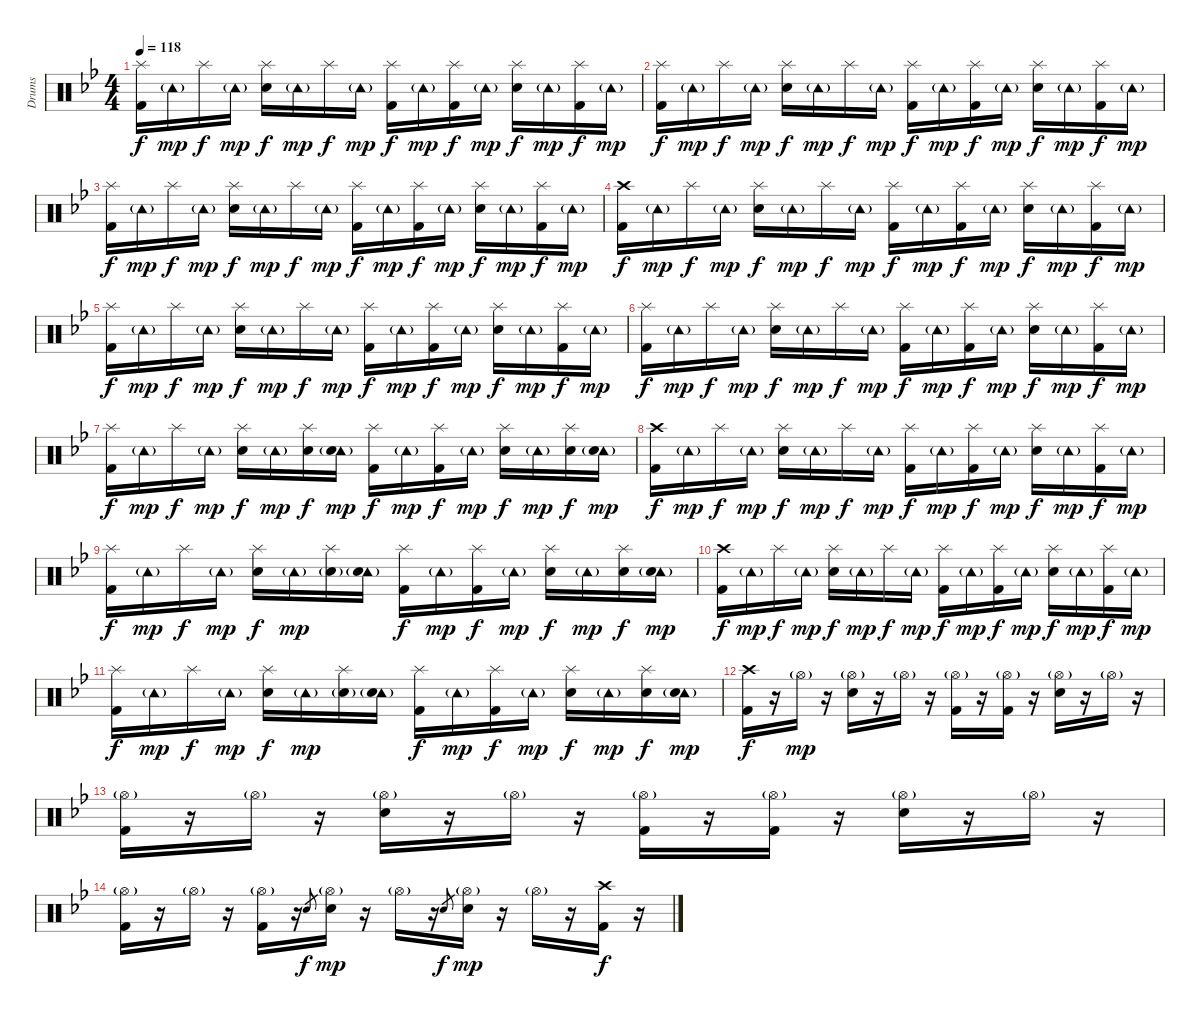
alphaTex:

\track ("Drums" "Drums") {instrument percussion}
\staff {score}
\articulation defaults
\ts (4 4)
\tempo 118
\clef neutral
\ks bb
("Splash (hit)" "Kick (hit) 2").16{dy f} "Tambourine (hit)"{g}.16{dy mp} "Splash (hit)".16{dy f} "Tambourine (hit)"{g}.16{dy mp} ("Splash (hit)" "Electric Snare (hit)").16{dy f} "Tambourine (hit)"{g}.16{dy mp} "Splash (hit)".16{dy f} "Tambourine (hit)"{g}.16{dy mp} ("Splash (hit)" "Kick (hit) 2").16{dy f} "Tambourine (hit)"{g}.16{dy mp} ("Splash (hit)" "Kick (hit) 2").16{dy f} "Tambourine (hit)"{g}.16{dy mp} ("Splash (hit)" "Electric Snare (hit)").16{dy f} "Tambourine (hit)"{g}.16{dy mp} ("Splash (hit)" "Kick (hit) 2").16{dy f} "Tambourine (hit)"{g}.16{dy mp} |
("Splash (hit)" "Kick (hit) 2").16{dy f} "Tambourine (hit)"{g}.16{dy mp} "Splash (hit)".16{dy f} "Tambourine (hit)"{g}.16{dy mp} ("Splash (hit)" "Electric Snare (hit)").16{dy f} "Tambourine (hit)"{g}.16{dy mp} "Splash (hit)".16{dy f} "Tambourine (hit)"{g}.16{dy mp} ("Splash (hit)" "Kick (hit) 2").16{dy f} "Tambourine (hit)"{g}.16{dy mp} ("Splash (hit)" "Kick (hit) 2").16{dy f} "Tambourine (hit)"{g}.16{dy mp} ("Splash (hit)" "Electric Snare (hit)").16{dy f} "Tambourine (hit)"{g}.16{dy mp} ("Splash (hit)" "Kick (hit) 2").16{dy f} "Tambourine (hit)"{g}.16{dy mp} |
("Splash (hit)" "Kick (hit) 2").16{dy f} "Tambourine (hit)"{g}.16{dy mp} "Splash (hit)".16{dy f} "Tambourine (hit)"{g}.16{dy mp} ("Splash (hit)" "Electric Snare (hit)").16{dy f} "Tambourine (hit)"{g}.16{dy mp} "Splash (hit)".16{dy f} "Tambourine (hit)"{g}.16{dy mp} ("Splash (hit)" "Kick (hit) 2").16{dy f} "Tambourine (hit)"{g}.16{dy mp} ("Splash (hit)" "Kick (hit) 2").16{dy f} "Tambourine (hit)"{g}.16{dy mp} ("Splash (hit)" "Electric Snare (hit)").16{dy f} "Tambourine (hit)"{g}.16{dy mp} ("Splash (hit)" "Kick (hit) 2").16{dy f} "Tambourine (hit)"{g}.16{dy mp} |
("Crash high (hit)" "Kick (hit) 2").16{dy f} "Tambourine (hit)"{g}.16{dy mp} "Splash (hit)".16{dy f} "Tambourine (hit)"{g}.16{dy mp} ("Splash (hit)" "Electric Snare (hit)").16{dy f} "Tambourine (hit)"{g}.16{dy mp} "Splash (hit)".16{dy f} "Tambourine (hit)"{g}.16{dy mp} ("Splash (hit)" "Kick (hit) 2").16{dy f} "Tambourine (hit)"{g}.16{dy mp} ("Splash (hit)" "Kick (hit) 2").16{dy f} "Tambourine (hit)"{g}.16{dy mp} ("Splash (hit)" "Electric Snare (hit)").16{dy f} "Tambourine (hit)"{g}.16{dy mp} ("Splash (hit)" "Kick (hit) 2").16{dy f} "Tambourine (hit)"{g}.16{dy mp} |
("Splash (hit)" "Kick (hit) 2").16{dy f} "Tambourine (hit)"{g}.16{dy mp} "Splash (hit)".16{dy f} "Tambourine (hit)"{g}.16{dy mp} ("Splash (hit)" "Electric Snare (hit)").16{dy f} "Tambourine (hit)"{g}.16{dy mp} "Splash (hit)".16{dy f} "Tambourine (hit)"{g}.16{dy mp} ("Splash (hit)" "Kick (hit) 2").16{dy f} "Tambourine (hit)"{g}.16{dy mp} ("Splash (hit)" "Kick (hit) 2").16{dy f} "Tambourine (hit)"{g}.16{dy mp} ("Splash (hit)" "Electric Snare (hit)").16{dy f} "Tambourine (hit)"{g}.16{dy mp} ("Splash (hit)" "Kick (hit) 2").16{dy f} "Tambourine (hit)"{g}.16{dy mp} |
("Splash (hit)" "Kick (hit) 2").16{dy f} "Tambourine (hit)"{g}.16{dy mp} "Splash (hit)".16{dy f} "Tambourine (hit)"{g}.16{dy mp} ("Splash (hit)" "Electric Snare (hit)").16{dy f} "Tambourine (hit)"{g}.16{dy mp} "Splash (hit)".16{dy f} "Tambourine (hit)"{g}.16{dy mp} ("Splash (hit)" "Kick (hit) 2").16{dy f} "Tambourine (hit)"{g}.16{dy mp} ("Splash (hit)" "Kick (hit) 2").16{dy f} "Tambourine (hit)"{g}.16{dy mp} ("Splash (hit)" "Electric Snare (hit)").16{dy f} "Tambourine (hit)"{g}.16{dy mp} ("Splash (hit)" "Kick (hit) 2").16{dy f} "Tambourine (hit)"{g}.16{dy mp} |
("Splash (hit)" "Kick (hit) 2").16{dy f} "Tambourine (hit)"{g}.16{dy mp} "Splash (hit)".16{dy f} "Tambourine (hit)"{g}.16{dy mp} ("Splash (hit)" "Electric Snare (hit)").16{dy f} "Tambourine (hit)"{g}.16{dy mp} ("Splash (hit)" "Electric Snare (hit)").16{dy f} ("Tambourine (hit)"{g} "Electric Snare (hit)"{g}).16{dy mp} ("Splash (hit)" "Kick (hit) 2").16{dy f} "Tambourine (hit)"{g}.16{dy mp} ("Splash (hit)" "Kick (hit) 2").16{dy f} "Tambourine (hit)"{g}.16{dy mp} ("Splash (hit)" "Electric Snare (hit)").16{dy f} "Tambourine (hit)"{g}.16{dy mp} ("Splash (hit)" "Electric Snare (hit)").16{dy f} ("Tambourine (hit)"{g} "Electric Snare (hit)").16{dy mp} |
("Crash high (hit)" "Kick (hit) 2").16{dy f} "Tambourine (hit)"{g}.16{dy mp} "Splash (hit)".16{dy f} "Tambourine (hit)"{g}.16{dy mp} ("Splash (hit)" "Electric Snare (hit)").16{dy f} "Tambourine (hit)"{g}.16{dy mp} "Splash (hit)".16{dy f} "Tambourine (hit)"{g}.16{dy mp} ("Splash (hit)" "Kick (hit) 2").16{dy f} "Tambourine (hit)"{g}.16{dy mp} ("Splash (hit)" "Kick (hit) 2").16{dy f} "Tambourine (hit)"{g}.16{dy mp} ("Splash (hit)" "Electric Snare (hit)").16{dy f} "Tambourine (hit)"{g}.16{dy mp} ("Splash (hit)" "Kick (hit) 2").16{dy f} "Tambourine (hit)"{g}.16{dy mp} |
("Splash (hit)" "Kick (hit) 2").16{dy f} "Tambourine (hit)"{g}.16{dy mp} "Splash (hit)".16{dy f} "Tambourine (hit)"{g}.16{dy mp} ("Splash (hit)" "Electric Snare (hit)").16{dy f} "Tambourine (hit)"{g}.16{dy mp} ("Splash (hit)" "Electric Snare (hit)"{g}).16 ("Tambourine (hit)"{g} "Electric Snare (hit)"{g}).16 ("Splash (hit)" "Kick (hit) 2").16{dy f} "Tambourine (hit)"{g}.16{dy mp} ("Splash (hit)" "Kick (hit) 2").16{dy f} "Tambourine (hit)"{g}.16{dy mp} ("Splash (hit)" "Electric Snare (hit)").16{dy f} "Tambourine (hit)"{g}.16{dy mp} ("Splash (hit)" "Electric Snare (hit)").16{dy f} ("Tambourine (hit)"{g} "Electric Snare (hit)").16{dy mp} |
("Crash high (hit)" "Kick (hit) 2").16{dy f} "Tambourine (hit)"{g}.16{dy mp} "Splash (hit)".16{dy f} "Tambourine (hit)"{g}.16{dy mp} ("Splash (hit)" "Electric Snare (hit)").16{dy f} "Tambourine (hit)"{g}.16{dy mp} "Splash (hit)".16{dy f} "Tambourine (hit)"{g}.16{dy mp} ("Splash (hit)" "Kick (hit) 2").16{dy f} "Tambourine (hit)"{g}.16{dy mp} ("Splash (hit)" "Kick (hit) 2").16{dy f} "Tambourine (hit)"{g}.16{dy mp} ("Splash (hit)" "Electric Snare (hit)").16{dy f} "Tambourine (hit)"{g}.16{dy mp} ("Splash (hit)" "Kick (hit) 2").16{dy f} "Tambourine (hit)"{g}.16{dy mp} |
("Splash (hit)" "Kick (hit) 2").16{dy f} "Tambourine (hit)"{g}.16{dy mp} "Splash (hit)".16{dy f} "Tambourine (hit)"{g}.16{dy mp} ("Splash (hit)" "Electric Snare (hit)").16{dy f} "Tambourine (hit)"{g}.16{dy mp} ("Splash (hit)" "Electric Snare (hit)"{g}).16 ("Tambourine (hit)"{g} "Electric Snare (hit)"{g}).16 ("Splash (hit)" "Kick (hit) 2").16{dy f} "Tambourine (hit)"{g}.16{dy mp} ("Splash (hit)" "Kick (hit) 2").16{dy f} "Tambourine (hit)"{g}.16{dy mp} ("Splash (hit)" "Electric Snare (hit)").16{dy f} "Tambourine (hit)"{g}.16{dy mp} ("Splash (hit)" "Electric Snare (hit)").16{dy f} ("Tambourine (hit)"{g} "Electric Snare (hit)").16{dy mp} |
("Crash high (hit)" "Kick (hit) 2").16{dy f} r.16 "Hi-Hat (open)"{g}.16{dy mp} r.16 ("Hi-Hat (open)"{g} "Electric Snare (hit)").16 r.16 "Hi-Hat (open)"{g}.16 r.16 ("Hi-Hat (open)"{g} "Kick (hit) 2").16 r.16 ("Hi-Hat (open)"{g} "Kick (hit) 2").16 r.16 ("Hi-Hat (open)"{g} "Electric Snare (hit)").16 r.16 "Hi-Hat (open)"{g}.16 r.16 |
("Hi-Hat (open)"{g} "Kick (hit) 2").16 r.16 "Hi-Hat (open)"{g}.16 r.16 ("Hi-Hat (open)"{g} "Electric Snare (hit)").16 r.16 "Hi-Hat (open)"{g}.16 r.16 ("Hi-Hat (open)"{g} "Kick (hit) 2").16 r.16 ("Hi-Hat (open)"{g} "Kick (hit) 2").16 r.16 ("Hi-Hat (open)"{g} "Electric Snare (hit)").16 r.16 "Hi-Hat (open)"{g}.16 r.16 |
("Hi-Hat (open)"{g} "Kick (hit) 2").16 r.16 "Hi-Hat (open)"{g}.16 r.16 ("Hi-Hat (open)"{g} "Kick (hit) 2").16 r.16 "Electric Snare (hit)".8{gr dy f} ("Hi-Hat (open)"{g} "Electric Snare (hit)").16{dy mp} r.16 "Hi-Hat (open)"{g}.16 r.16 "Electric Snare (hit)".8{gr dy f} ("Hi-Hat (open)"{g} "Electric Snare (hit)").16{dy mp} r.16 "Hi-Hat (open)"{g}.16 r.16 ("Crash high (hit)" "Kick (hit) 2").16{dy f} r.16
